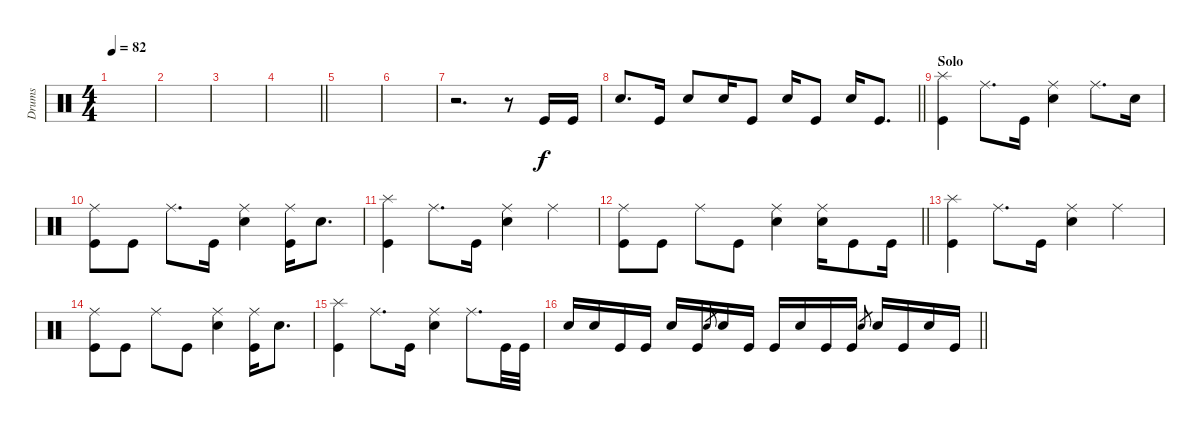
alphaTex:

\track ("Drums" "Drums") {instrument percussion}
\staff
\articulation defaults
\ts (4 4)
\section ("" "")
\tempo 82
\clef neutral
\ks c
|
|
|
\barLineRight lightlight
|
|
|
r.2{d} r.8 "Kick (hit)".16 "Kick (hit)".16 |
\barLineRight lightlight "Electric Snare (hit)".8{d} "Kick (hit)".16 "Electric Snare (hit)".8 "Electric Snare (hit)".16 "Kick (hit)".8 "Electric Snare (hit)".16 "Kick (hit)".8 "Electric Snare (hit)".16 "Kick (hit)".8{d}
|
\section ("" "Solo")
("Splash (hit)" "Kick (hit)").4 "Ride (middle)".8{d} "Kick (hit)".16 ("Ride (middle)" "Electric Snare (hit)").4 "Ride (middle)".8{d} "Electric Snare (hit)".16 |
("Ride (middle)" "Kick (hit)").8 "Kick (hit)".8 "Ride (middle)".8{d} "Kick (hit)".16 ("Ride (middle)" "Electric Snare (hit)").4 ("Ride (middle)" "Kick (hit)").16 "Electric Snare (hit)".8{d} |
("Splash (hit)" "Kick (hit)").4 "Ride (middle)".8{d} "Kick (hit)".16 ("Ride (middle)" "Electric Snare (hit)").4 "Ride (middle)".4 |
\barLineRight lightlight
("Ride (middle)" "Kick (hit)").8 "Kick (hit)".8 "Ride (middle)".8 "Kick (hit)".8 ("Ride (middle)" "Electric Snare (hit)").4 ("Ride (middle)" "Electric Snare (hit)").16 "Kick (hit)".8 "Kick (hit)".16 |
("Splash (hit)" "Kick (hit)").4 "Ride (middle)".8{d} "Kick (hit)".16 ("Ride (middle)" "Electric Snare (hit)").4 "Ride (middle)".4 |
("Ride (middle)" "Kick (hit)").8 "Kick (hit)".8 "Ride (middle)".8 "Kick (hit)".8 ("Ride (middle)" "Electric Snare (hit)").4 ("Ride (middle)" "Kick (hit)").16 "Electric Snare (hit)".8{d} |
("Splash (hit)" "Kick (hit)").4 "Ride (middle)".8{d} "Kick (hit)".16 ("Ride (middle)" "Electric Snare (hit)").4 "Ride (middle)".8{d} "Kick (hit)".32 "Kick (hit)".32 |
\barLineRight lightlight "Electric Snare (hit)".16 "Electric Snare (hit)".16 "Kick (hit)".16 "Kick (hit)".16 "Electric Snare (hit)".16 "Kick (hit)".16 "Electric Snare (hit)".8{gr} "Electric Snare (hit)".16 "Kick (hit)".16 "Kick (hit)".16 "Electric Snare (hit)".16 "Kick (hit)".16 "Kick (hit)".16 "Electric Snare (hit)".8{gr} "Electric Snare (hit)".16 "Kick (hit)".16 "Electric Snare (hit)".16 "Kick (hit)".16
